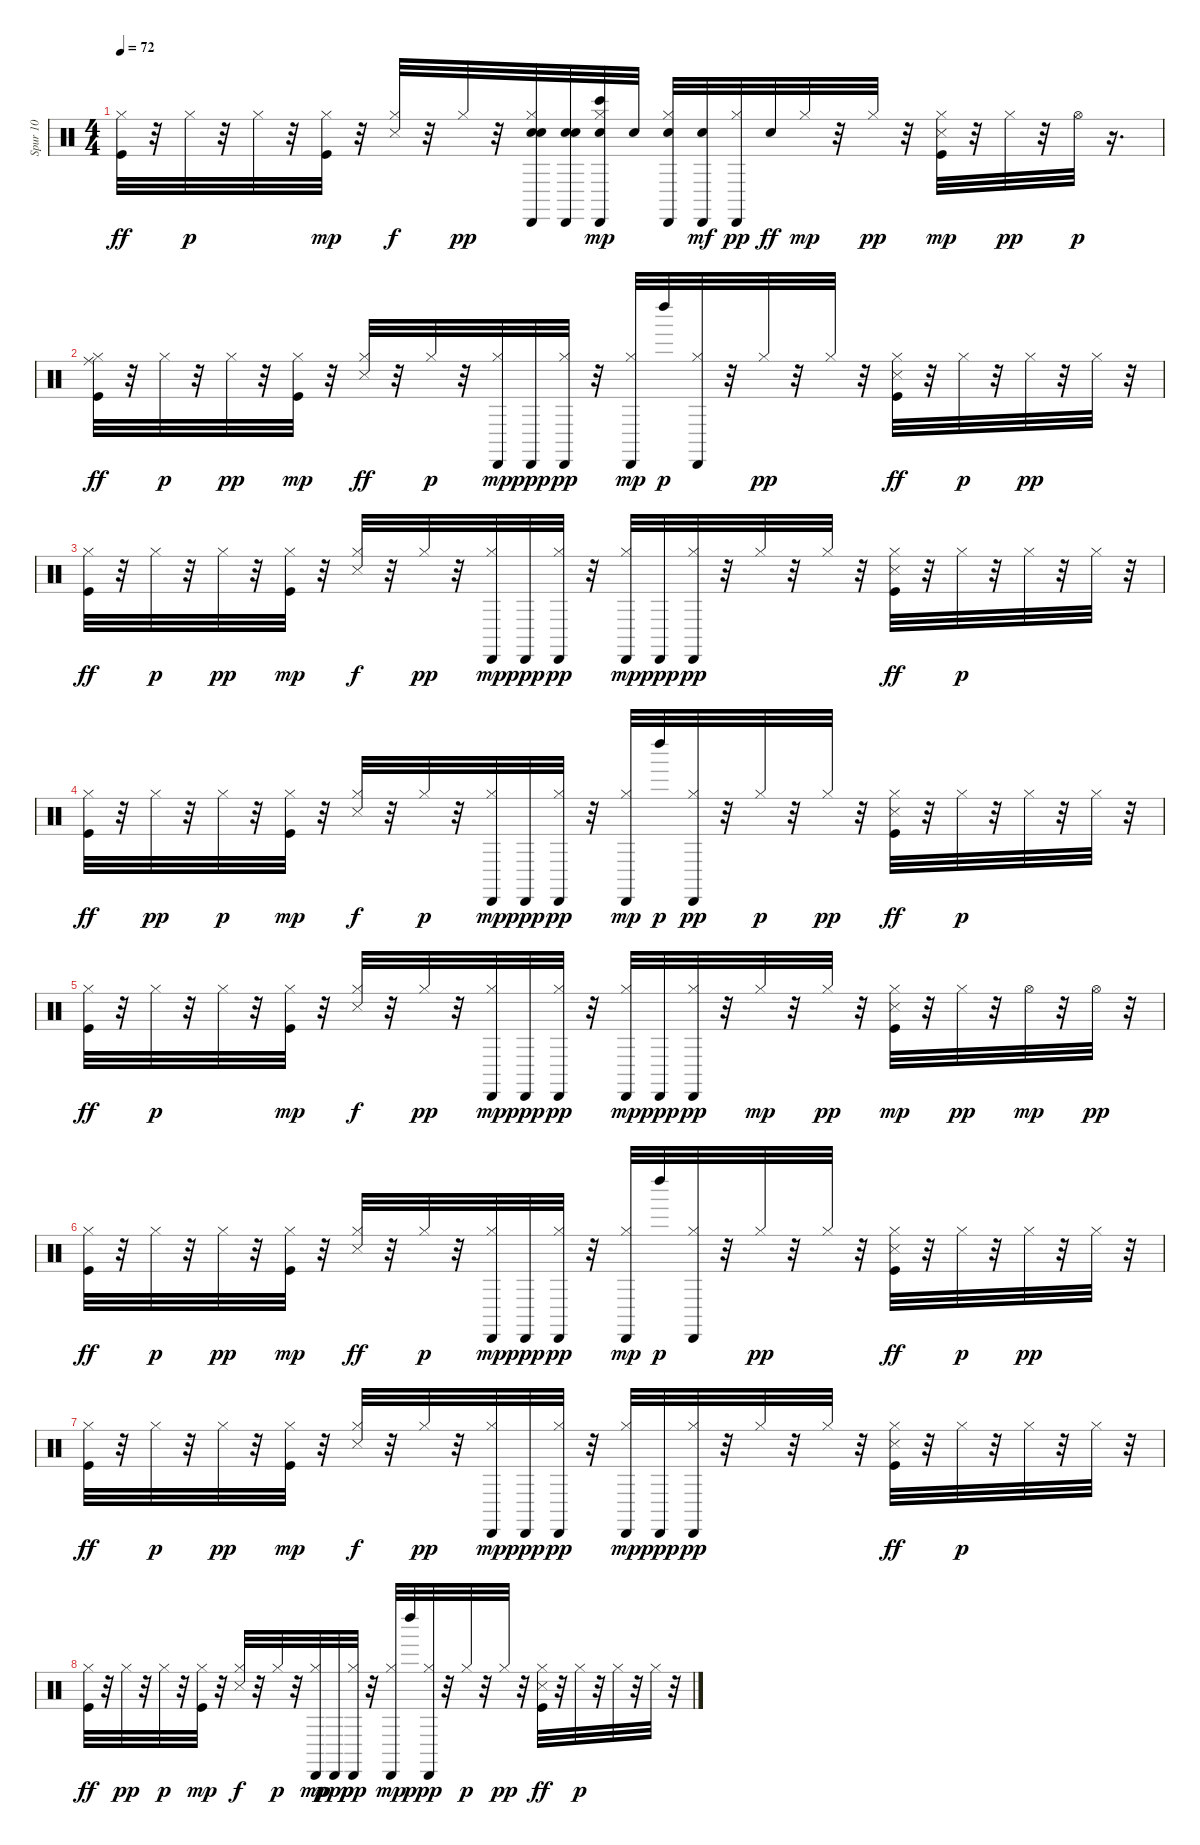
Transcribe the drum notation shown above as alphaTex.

\track ("Spur 10" "Spur 10") {instrument percussion}
\staff {score}
\articulation defaults
\ts (4 4)
\tempo 72
\clef neutral
\ks c
("Kick (hit)" "Hi-Hat (closed)").32{dy ff} r.32 "Hi-Hat (closed)".32{dy p} r.32 "Hi-Hat (closed)".32 r.32 ("Hi-Hat (closed)" "Kick (hit)").32{dy mp} r.32 ("Snare (side stick) 3" "Hi-Hat (closed)").32{dy f} r.32 "Hi-Hat (closed)".32{dy pp} r.32 ("Snare (hit) 2" "Hi-Hat (closed)" "Cabasa (hit)" "Snare (hit) 2").32 ("Cabasa (hit)" "Snare (hit) 2" "Snare (hit) 2").32 ("Hi-Hat (closed)" "Cabasa (hit)" "Bongo High (hit)" "Snare (hit) 2").32{dy mp} "Snare (hit) 2".32 ("Snare (hit) 2" "Hi-Hat (closed)" "Cabasa (hit)").32 ("Cabasa (hit)" "Snare (hit) 2").32{dy mf} ("Cabasa (hit)" "Hi-Hat (closed)").32{dy pp} "Snare (hit) 2".32{dy ff} "Hi-Hat (closed)".32{dy mp} r.32 "Hi-Hat (closed)".32{dy pp} r.32 ("Snare (side stick) 3" "Kick (hit)" "Hi-Hat (closed)").32{dy mp} r.32 "Hi-Hat (closed)".32{dy pp} r.32 "Hi-Hat (open)".32{dy p} r.16{d} |
("Kick (hit)" "Hi-Hat (closed)" "Ride (middle)").32{dy ff} r.32 "Hi-Hat (closed)".32{dy p} r.32 "Hi-Hat (closed)".32{dy pp} r.32 ("Hi-Hat (closed)" "Kick (hit)").32{dy mp} r.32 ("Hi-Hat (closed)" "Snare (side stick) 3").32{dy ff} r.32 "Hi-Hat (closed)".32{dy p} r.32 ("Hi-Hat (closed)" "Cabasa (hit)").32{dy mp} "Cabasa (hit)".32{dy ppp} ("Hi-Hat (closed)" "Cabasa (hit)").32{dy pp} r.32 ("Cabasa (hit)" "Hi-Hat (closed)").32{dy mp} "Left Maraca (hit)".32{dy p} ("Cabasa (hit)" "Hi-Hat (closed)").32 r.32 "Hi-Hat (closed)".32{dy pp} r.32 "Hi-Hat (closed)".32 r.32 ("Snare (side stick) 3" "Kick (hit)" "Hi-Hat (closed)").32{dy ff} r.32 "Hi-Hat (closed)".32{dy p} r.32 "Hi-Hat (closed)".32{dy pp} r.32 "Hi-Hat (closed)".32 r.32 |
("Kick (hit)" "Hi-Hat (closed)").32{dy ff} r.32 "Hi-Hat (closed)".32{dy p} r.32 "Hi-Hat (closed)".32{dy pp} r.32 ("Hi-Hat (closed)" "Kick (hit)").32{dy mp} r.32 ("Hi-Hat (closed)" "Snare (side stick) 3").32{dy f} r.32 "Hi-Hat (closed)".32{dy pp} r.32 ("Hi-Hat (closed)" "Cabasa (hit)").32{dy mp} "Cabasa (hit)".32{dy ppp} ("Hi-Hat (closed)" "Cabasa (hit)").32{dy pp} r.32 ("Hi-Hat (closed)" "Cabasa (hit)").32{dy mp} "Cabasa (hit)".32{dy ppp} ("Cabasa (hit)" "Hi-Hat (closed)").32{dy pp} r.32 "Hi-Hat (closed)".32 r.32 "Hi-Hat (closed)".32 r.32 ("Snare (side stick) 3" "Kick (hit)" "Hi-Hat (closed)").32{dy ff} r.32 "Hi-Hat (closed)".32{dy p} r.32 "Hi-Hat (closed)".32 r.32 "Hi-Hat (closed)".32 r.32 |
("Kick (hit)" "Hi-Hat (closed)").32{dy ff} r.32 "Hi-Hat (closed)".32{dy pp} r.32 "Hi-Hat (closed)".32{dy p} r.32 ("Hi-Hat (closed)" "Kick (hit)").32{dy mp} r.32 ("Hi-Hat (closed)" "Snare (side stick) 3").32{dy f} r.32 "Hi-Hat (closed)".32{dy p} r.32 ("Hi-Hat (closed)" "Cabasa (hit)").32{dy mp} "Cabasa (hit)".32{dy ppp} ("Hi-Hat (closed)" "Cabasa (hit)").32{dy pp} r.32 ("Hi-Hat (closed)" "Cabasa (hit)").32{dy mp} "Left Maraca (hit)".32{dy p} ("Cabasa (hit)" "Hi-Hat (closed)").32{dy pp} r.32 "Hi-Hat (closed)".32{dy p} r.32 "Hi-Hat (closed)".32{dy pp} r.32 ("Snare (side stick) 3" "Kick (hit)" "Hi-Hat (closed)").32{dy ff} r.32 "Hi-Hat (closed)".32{dy p} r.32 "Hi-Hat (closed)".32 r.32 "Hi-Hat (closed)".32 r.32 |
("Kick (hit)" "Hi-Hat (closed)").32{dy ff} r.32 "Hi-Hat (closed)".32{dy p} r.32 "Hi-Hat (closed)".32 r.32 ("Hi-Hat (closed)" "Kick (hit)").32{dy mp} r.32 ("Hi-Hat (closed)" "Snare (side stick) 3").32{dy f} r.32 "Hi-Hat (closed)".32{dy pp} r.32 ("Hi-Hat (closed)" "Cabasa (hit)").32{dy mp} "Cabasa (hit)".32{dy ppp} ("Hi-Hat (closed)" "Cabasa (hit)").32{dy pp} r.32 ("Hi-Hat (closed)" "Cabasa (hit)").32{dy mp} "Cabasa (hit)".32{dy ppp} ("Cabasa (hit)" "Hi-Hat (closed)").32{dy pp} r.32 "Hi-Hat (closed)".32{dy mp} r.32 "Hi-Hat (closed)".32{dy pp} r.32 ("Snare (side stick) 3" "Kick (hit)" "Hi-Hat (closed)").32{dy mp} r.32 "Hi-Hat (closed)".32{dy pp} r.32 "Hi-Hat (open)".32{dy mp} r.32 "Hi-Hat (open)".32{dy pp} r.32 |
("Kick (hit)" "Hi-Hat (closed)").32{dy ff} r.32 "Hi-Hat (closed)".32{dy p} r.32 "Hi-Hat (closed)".32{dy pp} r.32 ("Hi-Hat (closed)" "Kick (hit)").32{dy mp} r.32 ("Hi-Hat (closed)" "Snare (side stick) 3").32{dy ff} r.32 "Hi-Hat (closed)".32{dy p} r.32 ("Hi-Hat (closed)" "Cabasa (hit)").32{dy mp} "Cabasa (hit)".32{dy ppp} ("Hi-Hat (closed)" "Cabasa (hit)").32{dy pp} r.32 ("Cabasa (hit)" "Hi-Hat (closed)").32{dy mp} "Left Maraca (hit)".32{dy p} ("Cabasa (hit)" "Hi-Hat (closed)").32 r.32 "Hi-Hat (closed)".32{dy pp} r.32 "Hi-Hat (closed)".32 r.32 ("Snare (side stick) 3" "Kick (hit)" "Hi-Hat (closed)").32{dy ff} r.32 "Hi-Hat (closed)".32{dy p} r.32 "Hi-Hat (closed)".32{dy pp} r.32 "Hi-Hat (closed)".32 r.32 |
("Kick (hit)" "Hi-Hat (closed)").32{dy ff} r.32 "Hi-Hat (closed)".32{dy p} r.32 "Hi-Hat (closed)".32{dy pp} r.32 ("Hi-Hat (closed)" "Kick (hit)").32{dy mp} r.32 ("Hi-Hat (closed)" "Snare (side stick) 3").32{dy f} r.32 "Hi-Hat (closed)".32{dy pp} r.32 ("Hi-Hat (closed)" "Cabasa (hit)").32{dy mp} "Cabasa (hit)".32{dy ppp} ("Hi-Hat (closed)" "Cabasa (hit)").32{dy pp} r.32 ("Hi-Hat (closed)" "Cabasa (hit)").32{dy mp} "Cabasa (hit)".32{dy ppp} ("Cabasa (hit)" "Hi-Hat (closed)").32{dy pp} r.32 "Hi-Hat (closed)".32 r.32 "Hi-Hat (closed)".32 r.32 ("Snare (side stick) 3" "Kick (hit)" "Hi-Hat (closed)").32{dy ff} r.32 "Hi-Hat (closed)".32{dy p} r.32 "Hi-Hat (closed)".32 r.32 "Hi-Hat (closed)".32 r.32 |
("Kick (hit)" "Hi-Hat (closed)").32{dy ff} r.32 "Hi-Hat (closed)".32{dy pp} r.32 "Hi-Hat (closed)".32{dy p} r.32 ("Hi-Hat (closed)" "Kick (hit)").32{dy mp} r.32 ("Hi-Hat (closed)" "Snare (side stick) 3").32{dy f} r.32 "Hi-Hat (closed)".32{dy p} r.32 ("Hi-Hat (closed)" "Cabasa (hit)").32{dy mp} "Cabasa (hit)".32{dy ppp} ("Hi-Hat (closed)" "Cabasa (hit)").32{dy pp} r.32 ("Hi-Hat (closed)" "Cabasa (hit)").32{dy mp} "Left Maraca (hit)".32{dy p} ("Cabasa (hit)" "Hi-Hat (closed)").32{dy pp} r.32 "Hi-Hat (closed)".32{dy p} r.32 "Hi-Hat (closed)".32{dy pp} r.32 ("Snare (side stick) 3" "Kick (hit)" "Hi-Hat (closed)").32{dy ff} r.32 "Hi-Hat (closed)".32{dy p} r.32 "Hi-Hat (closed)".32 r.32 "Hi-Hat (closed)".32 r.32
